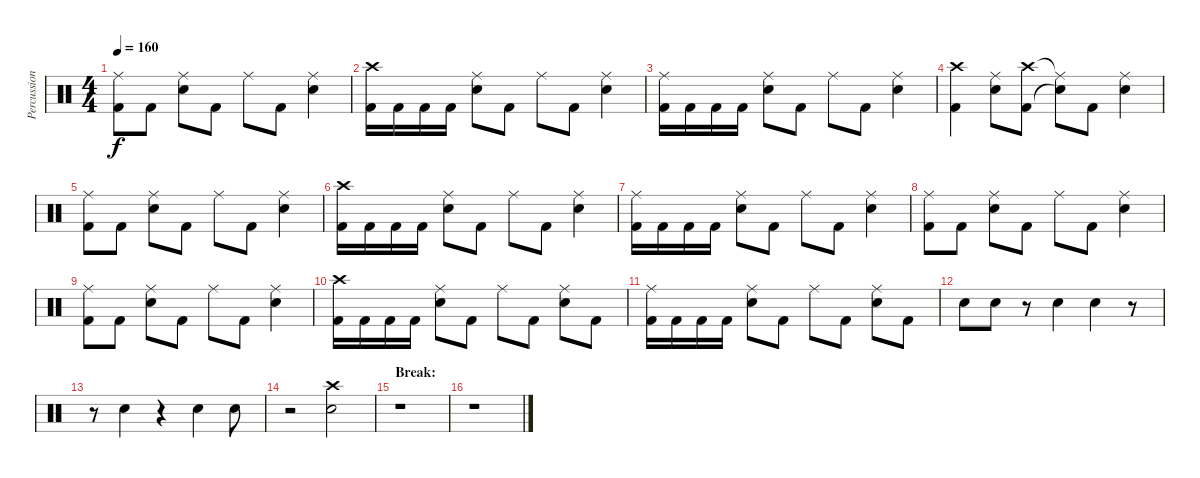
\track ("Percussion" "Percussion") {instrument percussion}
\staff {score}
\articulation defaults
\ts (4 4)
\tempo 160
\clef neutral
\ks c
("Ride (middle)" "Kick (hit) 2").8{dy f} "Kick (hit) 2".8 ("Ride (middle)" "Snare (hit) 2").8 "Kick (hit) 2".8 "Ride (middle)".8 "Kick (hit) 2".8 ("Ride (middle)" "Snare (hit) 2").4 |
("Crash high (hit)" "Kick (hit) 2").16 "Kick (hit) 2".16 "Kick (hit) 2".16 "Kick (hit) 2".16 ("Ride (middle)" "Snare (hit) 2").8 "Kick (hit) 2".8 "Ride (middle)".8 "Kick (hit) 2".8 ("Ride (middle)" "Snare (hit) 2").4 |
("Ride (middle)" "Kick (hit) 2").16 "Kick (hit) 2".16 "Kick (hit) 2".16 "Kick (hit) 2".16 ("Ride (middle)" "Snare (hit) 2").8 "Kick (hit) 2".8 "Ride (middle)".8 "Kick (hit) 2".8 ("Ride (middle)" "Snare (hit) 2").4 |
("Crash high (hit)" "Kick (hit) 2").4 ("Ride (middle)" "Snare (hit) 2").8 ("Crash high (hit)" "Kick (hit) 2").8 ("Ride (middle)"{t} "Snare (hit)"{t}).8 "Kick (hit) 2".8 ("Ride (middle)" "Snare (hit) 2").4 |
("Ride (middle)" "Kick (hit) 2").8 "Kick (hit) 2".8 ("Ride (middle)" "Snare (hit) 2").8 "Kick (hit) 2".8 "Ride (middle)".8 "Kick (hit) 2".8 ("Ride (middle)" "Snare (hit) 2").4 |
("Crash high (hit)" "Kick (hit) 2").16 "Kick (hit) 2".16 "Kick (hit) 2".16 "Kick (hit) 2".16 ("Ride (middle)" "Snare (hit) 2").8 "Kick (hit) 2".8 "Ride (middle)".8 "Kick (hit) 2".8 ("Ride (middle)" "Snare (hit) 2").4 |
("Ride (middle)" "Kick (hit) 2").16 "Kick (hit) 2".16 "Kick (hit) 2".16 "Kick (hit) 2".16 ("Ride (middle)" "Snare (hit) 2").8 "Kick (hit) 2".8 "Ride (middle)".8 "Kick (hit) 2".8 ("Ride (middle)" "Snare (hit) 2").4 |
("Ride (middle)" "Kick (hit) 2").8 "Kick (hit) 2".8 ("Ride (middle)" "Snare (hit) 2").8 "Kick (hit) 2".8 "Ride (middle)".8 "Kick (hit) 2".8 ("Ride (middle)" "Snare (hit) 2").4 |
("Ride (middle)" "Kick (hit) 2").8 "Kick (hit) 2".8 ("Ride (middle)" "Snare (hit) 2").8 "Kick (hit) 2".8 "Ride (middle)".8 "Kick (hit) 2".8 ("Ride (middle)" "Snare (hit) 2").4 |
("Crash high (hit)" "Kick (hit) 2").16 "Kick (hit) 2".16 "Kick (hit) 2".16 "Kick (hit) 2".16 ("Ride (middle)" "Snare (hit) 2").8 "Kick (hit) 2".8 "Ride (middle)".8 "Kick (hit) 2".8 ("Ride (middle)" "Snare (hit) 2").8 "Kick (hit) 2".8 |
("Ride (middle)" "Kick (hit) 2").16 "Kick (hit) 2".16 "Kick (hit) 2".16 "Kick (hit) 2".16 ("Ride (middle)" "Snare (hit) 2").8 "Kick (hit) 2".8 "Ride (middle)".8 "Kick (hit) 2".8 ("Ride (middle)" "Snare (hit) 2").8 "Kick (hit) 2".8 |
"Snare (hit) 2".8 "Snare (hit) 2".8 r.8 "Snare (hit) 2".4 "Snare (hit) 2".4 r.8 |
r.8 "Snare (hit) 2".4 r.4 "Snare (hit) 2".4 "Snare (hit) 2".8 |
r.2 ("Crash high (hit)" "Snare (hit) 2").2 |
\section ("" "Break:")
r.1 |
r.1
